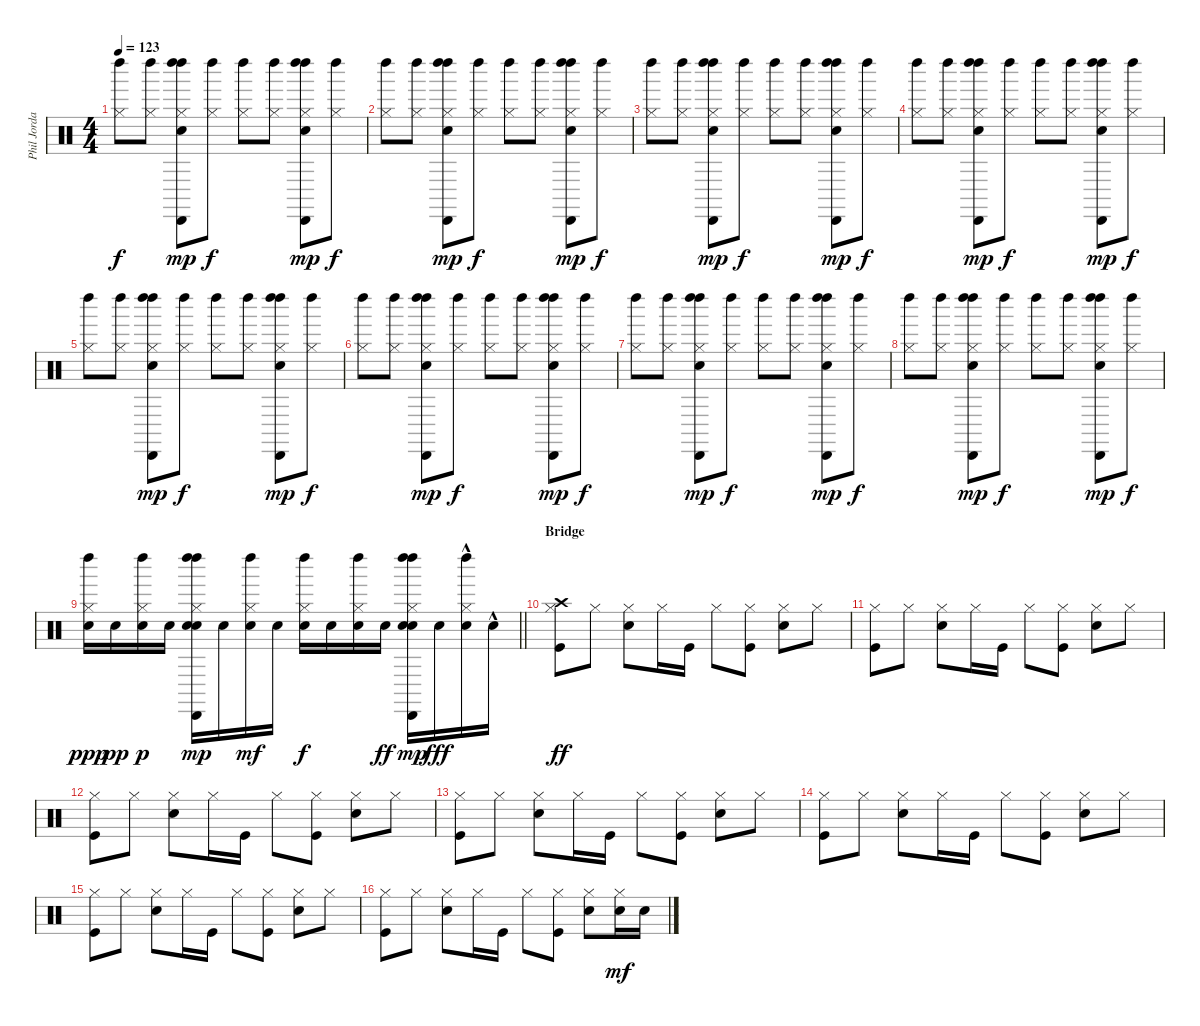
\track ("Phil Jordan" "Phil Jorda") {instrument percussion}
\staff {score}
\articulation defaults
\ts (4 4)
\tempo 123
\clef neutral
\ks c
("Left Maraca (hit)" "Hi-Hat (closed)").8{dy f} ("Left Maraca (hit)" "Hi-Hat (closed)").8 ("Left Maraca (hit)" "Hi-Hat (closed)" "Cabasa (hit)" "Left Maraca (hit)" "Snare (hit) 2").8{dy mp} ("Left Maraca (hit)" "Hi-Hat (closed)").8{dy f} ("Left Maraca (hit)" "Hi-Hat (closed)").8 ("Left Maraca (hit)" "Hi-Hat (closed)").8 ("Left Maraca (hit)" "Hi-Hat (closed)" "Cabasa (hit)" "Left Maraca (hit)" "Snare (hit) 2").8{dy mp} ("Left Maraca (hit)" "Hi-Hat (closed)").8{dy f} |
("Left Maraca (hit)" "Hi-Hat (closed)").8 ("Left Maraca (hit)" "Hi-Hat (closed)").8 ("Left Maraca (hit)" "Hi-Hat (closed)" "Cabasa (hit)" "Left Maraca (hit)" "Snare (hit) 2").8{dy mp} ("Left Maraca (hit)" "Hi-Hat (closed)").8{dy f} ("Left Maraca (hit)" "Hi-Hat (closed)").8 ("Left Maraca (hit)" "Hi-Hat (closed)").8 ("Left Maraca (hit)" "Hi-Hat (closed)" "Cabasa (hit)" "Left Maraca (hit)" "Snare (hit) 2").8{dy mp} ("Left Maraca (hit)" "Hi-Hat (closed)").8{dy f} |
("Left Maraca (hit)" "Hi-Hat (closed)").8{volume 8} ("Left Maraca (hit)" "Hi-Hat (closed)").8 ("Left Maraca (hit)" "Hi-Hat (closed)" "Cabasa (hit)" "Left Maraca (hit)" "Snare (hit) 2").8{dy mp} ("Left Maraca (hit)" "Hi-Hat (closed)").8{dy f} ("Left Maraca (hit)" "Hi-Hat (closed)").8 ("Left Maraca (hit)" "Hi-Hat (closed)").8 ("Left Maraca (hit)" "Hi-Hat (closed)" "Cabasa (hit)" "Left Maraca (hit)" "Snare (hit) 2").8{dy mp} ("Left Maraca (hit)" "Hi-Hat (closed)").8{dy f} |
("Left Maraca (hit)" "Hi-Hat (closed)").8 ("Left Maraca (hit)" "Hi-Hat (closed)").8 ("Left Maraca (hit)" "Hi-Hat (closed)" "Cabasa (hit)" "Left Maraca (hit)" "Snare (hit) 2").8{dy mp} ("Left Maraca (hit)" "Hi-Hat (closed)").8{dy f} ("Left Maraca (hit)" "Hi-Hat (closed)").8 ("Left Maraca (hit)" "Hi-Hat (closed)").8 ("Left Maraca (hit)" "Hi-Hat (closed)" "Cabasa (hit)" "Left Maraca (hit)" "Snare (hit) 2").8{dy mp} ("Left Maraca (hit)" "Hi-Hat (closed)").8{dy f} |
("Left Maraca (hit)" "Hi-Hat (closed)").8 ("Left Maraca (hit)" "Hi-Hat (closed)").8 ("Left Maraca (hit)" "Hi-Hat (closed)" "Cabasa (hit)" "Left Maraca (hit)" "Snare (hit) 2").8{dy mp} ("Left Maraca (hit)" "Hi-Hat (closed)").8{dy f} ("Left Maraca (hit)" "Hi-Hat (closed)").8 ("Left Maraca (hit)" "Hi-Hat (closed)").8 ("Left Maraca (hit)" "Hi-Hat (closed)" "Cabasa (hit)" "Left Maraca (hit)" "Snare (hit) 2").8{dy mp} ("Left Maraca (hit)" "Hi-Hat (closed)").8{dy f} |
("Left Maraca (hit)" "Hi-Hat (closed)").8 ("Left Maraca (hit)" "Hi-Hat (closed)").8 ("Left Maraca (hit)" "Hi-Hat (closed)" "Cabasa (hit)" "Left Maraca (hit)" "Snare (hit) 2").8{dy mp} ("Left Maraca (hit)" "Hi-Hat (closed)").8{dy f} ("Left Maraca (hit)" "Hi-Hat (closed)").8 ("Left Maraca (hit)" "Hi-Hat (closed)").8 ("Left Maraca (hit)" "Hi-Hat (closed)" "Cabasa (hit)" "Left Maraca (hit)" "Snare (hit) 2").8{dy mp} ("Left Maraca (hit)" "Hi-Hat (closed)").8{dy f} |
("Left Maraca (hit)" "Hi-Hat (closed)").8{volume 8} ("Left Maraca (hit)" "Hi-Hat (closed)").8 ("Left Maraca (hit)" "Hi-Hat (closed)" "Cabasa (hit)" "Left Maraca (hit)" "Snare (hit) 2").8{dy mp} ("Left Maraca (hit)" "Hi-Hat (closed)").8{dy f} ("Left Maraca (hit)" "Hi-Hat (closed)").8 ("Left Maraca (hit)" "Hi-Hat (closed)").8 ("Left Maraca (hit)" "Hi-Hat (closed)" "Cabasa (hit)" "Left Maraca (hit)" "Snare (hit) 2").8{dy mp} ("Left Maraca (hit)" "Hi-Hat (closed)").8{dy f} |
("Left Maraca (hit)" "Hi-Hat (closed)").8 ("Left Maraca (hit)" "Hi-Hat (closed)").8 ("Left Maraca (hit)" "Hi-Hat (closed)" "Cabasa (hit)" "Left Maraca (hit)" "Snare (hit) 2").8{dy mp} ("Left Maraca (hit)" "Hi-Hat (closed)").8{dy f} ("Left Maraca (hit)" "Hi-Hat (closed)").8 ("Left Maraca (hit)" "Hi-Hat (closed)").8 ("Left Maraca (hit)" "Hi-Hat (closed)" "Cabasa (hit)" "Left Maraca (hit)" "Snare (hit) 2").8{dy mp volume 8} ("Left Maraca (hit)" "Hi-Hat (closed)").8{dy f} |
\barLineRight lightlight
("Left Maraca (hit)" "Hi-Hat (closed)" "Snare (hit) 2").16{dy ppp volume 15} "Snare (hit) 2".16{dy pp} ("Left Maraca (hit)" "Hi-Hat (closed)" "Snare (hit) 2").16{dy p} "Snare (hit) 2".16 ("Left Maraca (hit)" "Hi-Hat (closed)" "Snare (hit) 2" "Cabasa (hit)" "Left Maraca (hit)" "Snare (hit) 2").16{dy mp} "Snare (hit) 2".16 ("Left Maraca (hit)" "Hi-Hat (closed)" "Snare (hit) 2").16{dy mf} "Snare (hit) 2".16 ("Left Maraca (hit)" "Hi-Hat (closed)" "Snare (hit) 2").16{dy f} "Snare (hit) 2".16 ("Left Maraca (hit)" "Hi-Hat (closed)" "Snare (hit) 2").16 "Snare (hit) 2".16{dy ff} ("Left Maraca (hit)" "Hi-Hat (closed)" "Snare (hit) 2" "Cabasa (hit)" "Left Maraca (hit)" "Snare (hit) 2").16{dy mp} "Snare (hit) 2".16{dy fff} ("Left Maraca (hit)" "Hi-Hat (closed)" "Snare (hit) 2"{hac}).16 "Snare (hit) 2"{hac}.16 |
\section ("" "Bridge")
("Crash high (hit)" "Hi-Hat (closed)" "Kick (hit)").8{dy ff volume 15} "Hi-Hat (closed)".8 ("Hi-Hat (closed)" "Snare (hit) 2").8 "Hi-Hat (closed)".16 "Kick (hit)".16 "Hi-Hat (closed)".8 ("Hi-Hat (closed)" "Kick (hit)").8 ("Hi-Hat (closed)" "Snare (hit) 2").8 "Hi-Hat (closed)".8 |
("Hi-Hat (closed)" "Kick (hit)").8 "Hi-Hat (closed)".8 ("Hi-Hat (closed)" "Snare (hit) 2").8 "Hi-Hat (closed)".16 "Kick (hit)".16 "Hi-Hat (closed)".8 ("Hi-Hat (closed)" "Kick (hit)").8 ("Hi-Hat (closed)" "Snare (hit) 2").8 "Hi-Hat (closed)".8 |
("Hi-Hat (closed)" "Kick (hit)").8 "Hi-Hat (closed)".8 ("Hi-Hat (closed)" "Snare (hit) 2").8 "Hi-Hat (closed)".16 "Kick (hit)".16 "Hi-Hat (closed)".8 ("Hi-Hat (closed)" "Kick (hit)").8 ("Hi-Hat (closed)" "Snare (hit) 2").8 "Hi-Hat (closed)".8 |
("Hi-Hat (closed)" "Kick (hit)").8 "Hi-Hat (closed)".8 ("Hi-Hat (closed)" "Snare (hit) 2").8 "Hi-Hat (closed)".16 "Kick (hit)".16 "Hi-Hat (closed)".8 ("Hi-Hat (closed)" "Kick (hit)").8 ("Hi-Hat (closed)" "Snare (hit) 2").8 "Hi-Hat (closed)".8 |
("Hi-Hat (closed)" "Kick (hit)").8 "Hi-Hat (closed)".8 ("Hi-Hat (closed)" "Snare (hit) 2").8 "Hi-Hat (closed)".16 "Kick (hit)".16 "Hi-Hat (closed)".8 ("Hi-Hat (closed)" "Kick (hit)").8 ("Hi-Hat (closed)" "Snare (hit) 2").8 "Hi-Hat (closed)".8 |
("Hi-Hat (closed)" "Kick (hit)").8 "Hi-Hat (closed)".8 ("Hi-Hat (closed)" "Snare (hit) 2").8 "Hi-Hat (closed)".16 "Kick (hit)".16 "Hi-Hat (closed)".8 ("Hi-Hat (closed)" "Kick (hit)").8 ("Hi-Hat (closed)" "Snare (hit) 2").8 "Hi-Hat (closed)".8 |
("Hi-Hat (closed)" "Kick (hit)").8 "Hi-Hat (closed)".8 ("Hi-Hat (closed)" "Snare (hit) 2").8 "Hi-Hat (closed)".16 "Kick (hit)".16 "Hi-Hat (closed)".8 ("Hi-Hat (closed)" "Kick (hit)").8 ("Hi-Hat (closed)" "Snare (hit) 2").8 ("Hi-Hat (closed)" "Snare (hit) 2").16{dy mf} "Snare (hit) 2".16
